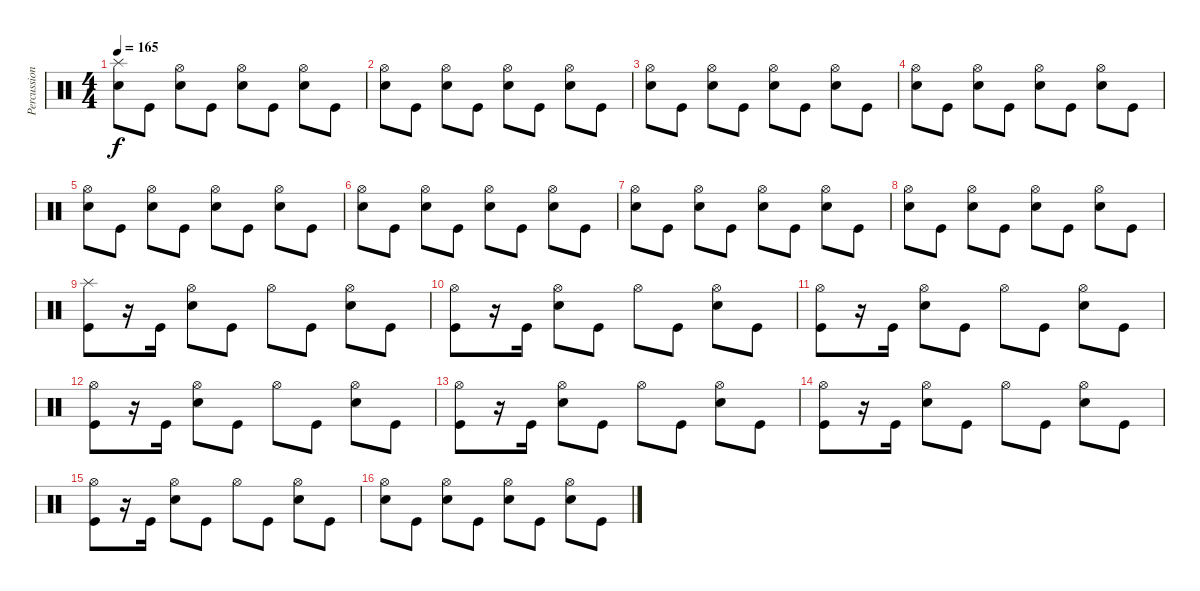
\track ("Percussion" "Percussion") {instrument percussion}
\staff {score}
\articulation defaults
\ts (4 4)
\tempo 165
\clef neutral
\ks c
("Splash (hit)" "Snare (hit) 2").8{dy f} "Kick (hit)".8 ("Hi-Hat (open)" "Snare (hit) 2").8 "Kick (hit)".8 ("Hi-Hat (open)" "Snare (hit) 2").8 "Kick (hit)".8 ("Hi-Hat (open)" "Snare (hit) 2").8 "Kick (hit)".8 |
("Hi-Hat (open)" "Snare (hit) 2").8 "Kick (hit)".8 ("Hi-Hat (open)" "Snare (hit) 2").8 "Kick (hit)".8 ("Hi-Hat (open)" "Snare (hit) 2").8 "Kick (hit)".8 ("Hi-Hat (open)" "Snare (hit) 2").8 "Kick (hit)".8 |
("Hi-Hat (open)" "Snare (hit) 2").8 "Kick (hit)".8 ("Hi-Hat (open)" "Snare (hit) 2").8 "Kick (hit)".8 ("Hi-Hat (open)" "Snare (hit) 2").8 "Kick (hit)".8 ("Hi-Hat (open)" "Snare (hit) 2").8 "Kick (hit)".8 |
("Hi-Hat (open)" "Snare (hit) 2").8 "Kick (hit)".8 ("Hi-Hat (open)" "Snare (hit) 2").8 "Kick (hit)".8 ("Hi-Hat (open)" "Snare (hit) 2").8 "Kick (hit)".8 ("Hi-Hat (open)" "Snare (hit) 2").8 "Kick (hit)".8 |
("Hi-Hat (open)" "Snare (hit) 2").8 "Kick (hit)".8 ("Hi-Hat (open)" "Snare (hit) 2").8 "Kick (hit)".8 ("Hi-Hat (open)" "Snare (hit) 2").8 "Kick (hit)".8 ("Hi-Hat (open)" "Snare (hit) 2").8 "Kick (hit)".8 |
("Hi-Hat (open)" "Snare (hit) 2").8 "Kick (hit)".8 ("Hi-Hat (open)" "Snare (hit) 2").8 "Kick (hit)".8 ("Hi-Hat (open)" "Snare (hit) 2").8 "Kick (hit)".8 ("Hi-Hat (open)" "Snare (hit) 2").8 "Kick (hit)".8 |
("Hi-Hat (open)" "Snare (hit) 2").8 "Kick (hit)".8 ("Hi-Hat (open)" "Snare (hit) 2").8 "Kick (hit)".8 ("Hi-Hat (open)" "Snare (hit) 2").8 "Kick (hit)".8 ("Hi-Hat (open)" "Snare (hit) 2").8 "Kick (hit)".8 |
("Hi-Hat (open)" "Snare (hit) 2").8 "Kick (hit)".8 ("Hi-Hat (open)" "Snare (hit) 2").8 "Kick (hit)".8 ("Hi-Hat (open)" "Snare (hit) 2").8 "Kick (hit)".8 ("Hi-Hat (open)" "Snare (hit) 2").8 "Kick (hit)".8 |
("Splash (hit)" "Kick (hit)").8 r.16 "Kick (hit)".16 ("Hi-Hat (open)" "Snare (hit) 2").8 "Kick (hit)".8 "Hi-Hat (open)".8 "Kick (hit)".8 ("Hi-Hat (open)" "Snare (hit) 2").8 "Kick (hit)".8 |
("Hi-Hat (open)" "Kick (hit)").8 r.16 "Kick (hit)".16 ("Hi-Hat (open)" "Snare (hit) 2").8 "Kick (hit)".8 "Hi-Hat (open)".8 "Kick (hit)".8 ("Hi-Hat (open)" "Snare (hit) 2").8 "Kick (hit)".8 |
("Hi-Hat (open)" "Kick (hit)").8 r.16 "Kick (hit)".16 ("Hi-Hat (open)" "Snare (hit) 2").8 "Kick (hit)".8 "Hi-Hat (open)".8 "Kick (hit)".8 ("Hi-Hat (open)" "Snare (hit) 2").8 "Kick (hit)".8 |
("Hi-Hat (open)" "Kick (hit)").8 r.16 "Kick (hit)".16 ("Hi-Hat (open)" "Snare (hit) 2").8 "Kick (hit)".8 "Hi-Hat (open)".8 "Kick (hit)".8 ("Hi-Hat (open)" "Snare (hit) 2").8 "Kick (hit)".8 |
("Hi-Hat (open)" "Kick (hit)").8 r.16 "Kick (hit)".16 ("Hi-Hat (open)" "Snare (hit) 2").8 "Kick (hit)".8 "Hi-Hat (open)".8 "Kick (hit)".8 ("Hi-Hat (open)" "Snare (hit) 2").8 "Kick (hit)".8 |
("Hi-Hat (open)" "Kick (hit)").8 r.16 "Kick (hit)".16 ("Hi-Hat (open)" "Snare (hit) 2").8 "Kick (hit)".8 "Hi-Hat (open)".8 "Kick (hit)".8 ("Hi-Hat (open)" "Snare (hit) 2").8 "Kick (hit)".8 |
("Hi-Hat (open)" "Kick (hit)").8 r.16 "Kick (hit)".16 ("Hi-Hat (open)" "Snare (hit) 2").8 "Kick (hit)".8 "Hi-Hat (open)".8 "Kick (hit)".8 ("Hi-Hat (open)" "Snare (hit) 2").8 "Kick (hit)".8 |
("Hi-Hat (open)" "Snare (hit) 2").8 "Kick (hit)".8 ("Hi-Hat (open)" "Snare (hit) 2").8 "Kick (hit)".8 ("Hi-Hat (open)" "Snare (hit) 2").8 "Kick (hit)".8 ("Hi-Hat (open)" "Snare (hit) 2").8 "Kick (hit)".8
